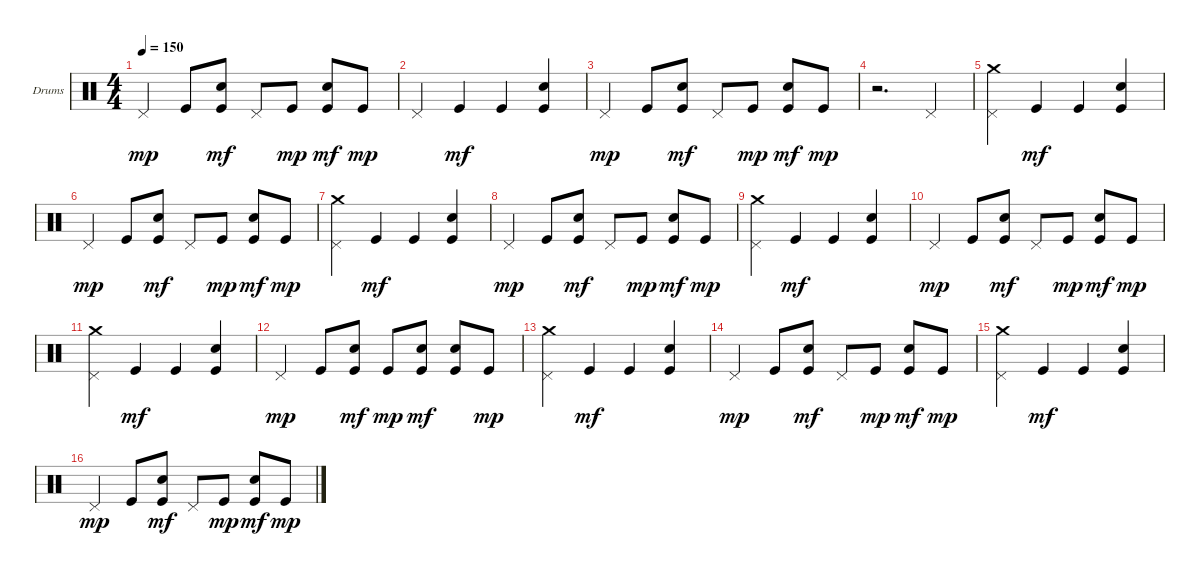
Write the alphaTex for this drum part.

\defaultSystemsLayout 4
\bracketExtendMode groupsimilarinstruments
\firstSystemTrackNameOrientation horizontal
\otherSystemsTrackNameOrientation horizontal
\track ("Е. Кулаков" "Drums") {instrument percussion}
\staff {score}
\articulation defaults
\ts (4 4)
\tempo 150
\clef neutral
\ks c "Pedal Hi-Hat (hit)".4{dy mp} "Kick (hit)".8
("Kick (hit)" "Snare (hit) 2").8{dy mf} "Pedal Hi-Hat (hit)".8 "Kick (hit)".8{dy mp} ("Kick (hit)" "Snare (hit) 2").8{dy mf} "Kick (hit)".8{dy mp} |
"Pedal Hi-Hat (hit)".4 "Kick (hit)".4{dy mf} "Kick (hit)".4 ("Snare (hit) 2" "Kick (hit)").4 |
"Pedal Hi-Hat (hit)".4{dy mp} "Kick (hit)".8 ("Kick (hit)" "Snare (hit) 2").8{dy mf} "Pedal Hi-Hat (hit)".8 "Kick (hit)".8{dy mp} ("Kick (hit)" "Snare (hit) 2").8{dy mf} "Kick (hit)".8{dy mp} |
r.2{d} "Pedal Hi-Hat (hit)".4 |
("Pedal Hi-Hat (hit)" "Crash medium (hit)").4 "Kick (hit)".4{dy mf} "Kick (hit)".4 ("Snare (hit) 2" "Kick (hit)").4 |
"Pedal Hi-Hat (hit)".4{dy mp} "Kick (hit)".8 ("Kick (hit)" "Snare (hit) 2").8{dy mf} "Pedal Hi-Hat (hit)".8 "Kick (hit)".8{dy mp} ("Kick (hit)" "Snare (hit) 2").8{dy mf} "Kick (hit)".8{dy mp} |
("Pedal Hi-Hat (hit)" "Crash medium (hit)").4 "Kick (hit)".4{dy mf} "Kick (hit)".4 ("Snare (hit) 2" "Kick (hit)").4 |
"Pedal Hi-Hat (hit)".4{dy mp} "Kick (hit)".8 ("Kick (hit)" "Snare (hit) 2").8{dy mf} "Pedal Hi-Hat (hit)".8 "Kick (hit)".8{dy mp} ("Kick (hit)" "Snare (hit) 2").8{dy mf} "Kick (hit)".8{dy mp} |
("Pedal Hi-Hat (hit)" "Crash medium (hit)").4 "Kick (hit)".4{dy mf} "Kick (hit)".4 ("Snare (hit) 2" "Kick (hit)").4 |
"Pedal Hi-Hat (hit)".4{dy mp} "Kick (hit)".8 ("Kick (hit)" "Snare (hit) 2").8{dy mf} "Pedal Hi-Hat (hit)".8 "Kick (hit)".8{dy mp} ("Kick (hit)" "Snare (hit) 2").8{dy mf} "Kick (hit)".8{dy mp} |
("Pedal Hi-Hat (hit)" "Crash medium (hit)").4 "Kick (hit)".4{dy mf} "Kick (hit)".4 ("Snare (hit) 2" "Kick (hit)").4 |
"Pedal Hi-Hat (hit)".4{dy mp} "Kick (hit)".8 ("Kick (hit)" "Snare (hit) 2").8{dy mf} "Kick (hit)".8{dy mp} ("Kick (hit)" "Snare (hit) 2").8{dy mf} ("Kick (hit)" "Snare (hit) 2").8 "Kick (hit)".8{dy mp} |
("Pedal Hi-Hat (hit)" "Crash medium (hit)").4 "Kick (hit)".4{dy mf} "Kick (hit)".4 ("Snare (hit) 2" "Kick (hit)").4 |
"Pedal Hi-Hat (hit)".4{dy mp} "Kick (hit)".8 ("Kick (hit)" "Snare (hit) 2").8{dy mf} "Pedal Hi-Hat (hit)".8 "Kick (hit)".8{dy mp} ("Kick (hit)" "Snare (hit) 2").8{dy mf} "Kick (hit)".8{dy mp} |
("Pedal Hi-Hat (hit)" "Crash medium (hit)").4 "Kick (hit)".4{dy mf} "Kick (hit)".4 ("Snare (hit) 2" "Kick (hit)").4 |
"Pedal Hi-Hat (hit)".4{dy mp} "Kick (hit)".8 ("Kick (hit)" "Snare (hit) 2").8{dy mf} "Pedal Hi-Hat (hit)".8 "Kick (hit)".8{dy mp} ("Kick (hit)" "Snare (hit) 2").8{dy mf} "Kick (hit)".8{dy mp}
